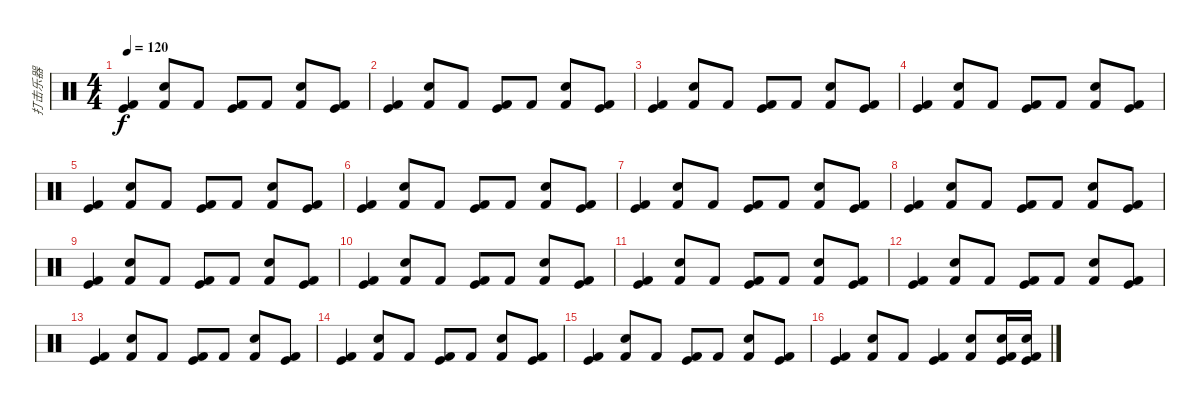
\track ("打击乐器" "打击乐器") {instrument percussion}
\staff {score}
\articulation defaults
\ts (4 4)
\tempo 120
\clef neutral
\ks c
("Kick (hit) 2" "Kick (hit)").4{dy f} ("Kick (hit) 2" "Electric Snare (hit)").8 "Kick (hit) 2".8 ("Kick (hit) 2" "Kick (hit)").8 "Kick (hit) 2".8 ("Kick (hit) 2" "Electric Snare (hit)").8 ("Kick (hit) 2" "Kick (hit)").8 |
("Kick (hit) 2" "Kick (hit)").4 ("Kick (hit) 2" "Electric Snare (hit)").8 "Kick (hit) 2".8 ("Kick (hit) 2" "Kick (hit)").8 "Kick (hit) 2".8 ("Kick (hit) 2" "Electric Snare (hit)").8 ("Kick (hit) 2" "Kick (hit)").8 |
("Kick (hit) 2" "Kick (hit)").4 ("Kick (hit) 2" "Electric Snare (hit)").8 "Kick (hit) 2".8 ("Kick (hit) 2" "Kick (hit)").8 "Kick (hit) 2".8 ("Kick (hit) 2" "Electric Snare (hit)").8 ("Kick (hit) 2" "Kick (hit)").8 |
("Kick (hit) 2" "Kick (hit)").4 ("Kick (hit) 2" "Electric Snare (hit)").8 "Kick (hit) 2".8 ("Kick (hit) 2" "Kick (hit)").8 "Kick (hit) 2".8 ("Kick (hit) 2" "Electric Snare (hit)").8 ("Kick (hit) 2" "Kick (hit)").8 |
("Kick (hit) 2" "Kick (hit)").4 ("Kick (hit) 2" "Electric Snare (hit)").8 "Kick (hit) 2".8 ("Kick (hit) 2" "Kick (hit)").8 "Kick (hit) 2".8 ("Kick (hit) 2" "Electric Snare (hit)").8 ("Kick (hit) 2" "Kick (hit)").8 |
("Kick (hit) 2" "Kick (hit)").4 ("Kick (hit) 2" "Electric Snare (hit)").8 "Kick (hit) 2".8 ("Kick (hit) 2" "Kick (hit)").8 "Kick (hit) 2".8 ("Kick (hit) 2" "Electric Snare (hit)").8 ("Kick (hit) 2" "Kick (hit)").8 |
("Kick (hit) 2" "Kick (hit)").4 ("Kick (hit) 2" "Electric Snare (hit)").8 "Kick (hit) 2".8 ("Kick (hit) 2" "Kick (hit)").8 "Kick (hit) 2".8 ("Kick (hit) 2" "Electric Snare (hit)").8 ("Kick (hit) 2" "Kick (hit)").8 |
("Kick (hit) 2" "Kick (hit)").4 ("Kick (hit) 2" "Electric Snare (hit)").8 "Kick (hit) 2".8 ("Kick (hit) 2" "Kick (hit)").8 "Kick (hit) 2".8 ("Kick (hit) 2" "Electric Snare (hit)").8 ("Kick (hit) 2" "Kick (hit)").8 |
("Kick (hit) 2" "Kick (hit)").4 ("Kick (hit) 2" "Electric Snare (hit)").8 "Kick (hit) 2".8 ("Kick (hit) 2" "Kick (hit)").8 "Kick (hit) 2".8 ("Kick (hit) 2" "Electric Snare (hit)").8 ("Kick (hit) 2" "Kick (hit)").8 |
("Kick (hit) 2" "Kick (hit)").4 ("Kick (hit) 2" "Electric Snare (hit)").8 "Kick (hit) 2".8 ("Kick (hit) 2" "Kick (hit)").8 "Kick (hit) 2".8 ("Kick (hit) 2" "Electric Snare (hit)").8 ("Kick (hit) 2" "Kick (hit)").8 |
("Kick (hit) 2" "Kick (hit)").4 ("Kick (hit) 2" "Electric Snare (hit)").8 "Kick (hit) 2".8 ("Kick (hit) 2" "Kick (hit)").8 "Kick (hit) 2".8 ("Kick (hit) 2" "Electric Snare (hit)").8 ("Kick (hit) 2" "Kick (hit)").8 |
("Kick (hit) 2" "Kick (hit)").4 ("Kick (hit) 2" "Electric Snare (hit)").8 "Kick (hit) 2".8 ("Kick (hit) 2" "Kick (hit)").8 "Kick (hit) 2".8 ("Kick (hit) 2" "Electric Snare (hit)").8 ("Kick (hit) 2" "Kick (hit)").8 |
("Kick (hit) 2" "Kick (hit)").4 ("Kick (hit) 2" "Electric Snare (hit)").8 "Kick (hit) 2".8 ("Kick (hit) 2" "Kick (hit)").8 "Kick (hit) 2".8 ("Kick (hit) 2" "Electric Snare (hit)").8 ("Kick (hit) 2" "Kick (hit)").8 |
("Kick (hit) 2" "Kick (hit)").4 ("Kick (hit) 2" "Electric Snare (hit)").8 "Kick (hit) 2".8 ("Kick (hit) 2" "Kick (hit)").8 "Kick (hit) 2".8 ("Kick (hit) 2" "Electric Snare (hit)").8 ("Kick (hit) 2" "Kick (hit)").8 |
("Kick (hit) 2" "Kick (hit)").4 ("Kick (hit) 2" "Electric Snare (hit)").8 "Kick (hit) 2".8 ("Kick (hit) 2" "Kick (hit)").8 "Kick (hit) 2".8 ("Kick (hit) 2" "Electric Snare (hit)").8 ("Kick (hit) 2" "Kick (hit)").8 |
("Kick (hit) 2" "Kick (hit)").4 ("Kick (hit) 2" "Electric Snare (hit)").8 "Kick (hit) 2".8 ("Kick (hit) 2" "Kick (hit)").4 ("Kick (hit) 2" "Electric Snare (hit)").8 ("Kick (hit) 2" "Kick (hit)" "Electric Snare (hit)").16 ("Kick (hit) 2" "Kick (hit)" "Electric Snare (hit)").16
